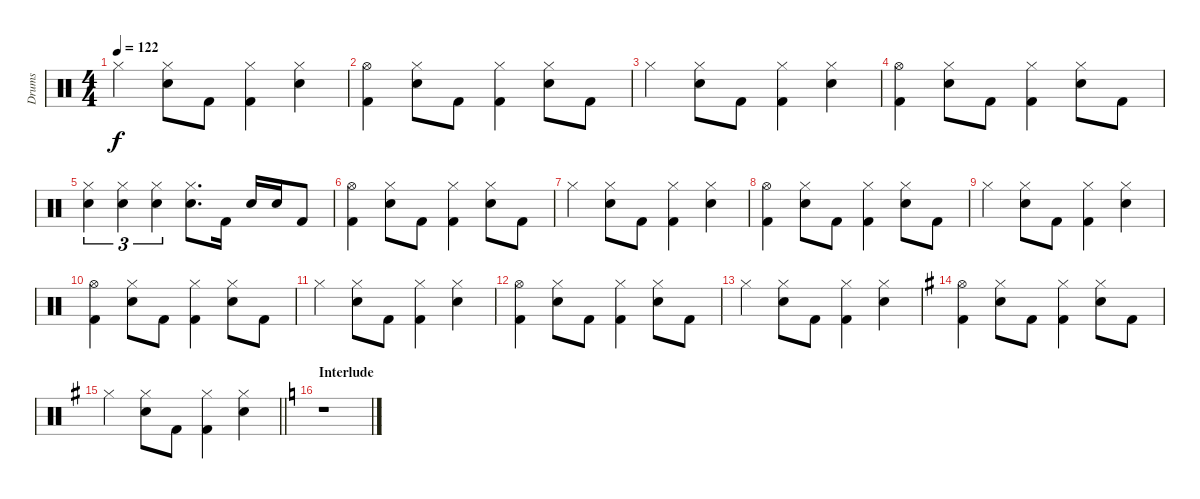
\track ("Drums" "Drums") {instrument percussion}
\staff {score}
\articulation defaults
\ts (4 4)
\tempo 122
\clef neutral
\ks c "Hi-Hat (closed)".4{dy f}
("Hi-Hat (closed)" "Snare (hit) 2").8 "Kick (hit) 2".8 ("Hi-Hat (closed)" "Kick (hit) 2").4 ("Hi-Hat (closed)" "Snare (hit) 2").4 |
("Hi-Hat (open)" "Kick (hit) 2").4 ("Hi-Hat (closed)" "Snare (hit) 2").8 "Kick (hit) 2".8 ("Hi-Hat (closed)" "Kick (hit) 2").4 ("Hi-Hat (closed)" "Snare (hit) 2").8 "Kick (hit) 2".8 |
"Hi-Hat (closed)".4 ("Hi-Hat (closed)" "Snare (hit) 2").8 "Kick (hit) 2".8 ("Hi-Hat (closed)" "Kick (hit) 2").4 ("Hi-Hat (closed)" "Snare (hit) 2").4 |
("Hi-Hat (open)" "Kick (hit) 2").4 ("Hi-Hat (closed)" "Snare (hit) 2").8 "Kick (hit) 2".8 ("Hi-Hat (closed)" "Kick (hit) 2").4 ("Hi-Hat (closed)" "Snare (hit) 2").8 "Kick (hit) 2".8 |
("Hi-Hat (closed)" "Snare (hit) 2").4{tu (3 2)} ("Hi-Hat (closed)" "Snare (hit) 2").4{tu (3 2)} ("Hi-Hat (closed)" "Snare (hit) 2").4{tu (3 2)} ("Hi-Hat (closed)" "Snare (hit) 2").8{d} "Kick (hit) 2".16 "Snare (hit) 2".16 "Snare (hit) 2".16 "Kick (hit) 2".8 |
("Hi-Hat (open)" "Kick (hit) 2").4 ("Hi-Hat (closed)" "Snare (hit) 2").8 "Kick (hit) 2".8 ("Hi-Hat (closed)" "Kick (hit) 2").4 ("Hi-Hat (closed)" "Snare (hit) 2").8 "Kick (hit) 2".8 |
"Hi-Hat (closed)".4 ("Hi-Hat (closed)" "Snare (hit) 2").8 "Kick (hit) 2".8 ("Hi-Hat (closed)" "Kick (hit) 2").4 ("Hi-Hat (closed)" "Snare (hit) 2").4 |
("Hi-Hat (open)" "Kick (hit) 2").4 ("Hi-Hat (closed)" "Snare (hit) 2").8 "Kick (hit) 2".8 ("Hi-Hat (closed)" "Kick (hit) 2").4 ("Hi-Hat (closed)" "Snare (hit) 2").8 "Kick (hit) 2".8 |
"Hi-Hat (closed)".4 ("Hi-Hat (closed)" "Snare (hit) 2").8 "Kick (hit) 2".8 ("Hi-Hat (closed)" "Kick (hit) 2").4 ("Hi-Hat (closed)" "Snare (hit) 2").4 |
("Hi-Hat (open)" "Kick (hit) 2").4 ("Hi-Hat (closed)" "Snare (hit) 2").8 "Kick (hit) 2".8 ("Hi-Hat (closed)" "Kick (hit) 2").4 ("Hi-Hat (closed)" "Snare (hit) 2").8 "Kick (hit) 2".8 |
"Hi-Hat (closed)".4 ("Hi-Hat (closed)" "Snare (hit) 2").8 "Kick (hit) 2".8 ("Hi-Hat (closed)" "Kick (hit) 2").4 ("Hi-Hat (closed)" "Snare (hit) 2").4 |
("Hi-Hat (open)" "Kick (hit) 2").4 ("Hi-Hat (closed)" "Snare (hit) 2").8 "Kick (hit) 2".8 ("Hi-Hat (closed)" "Kick (hit) 2").4 ("Hi-Hat (closed)" "Snare (hit) 2").8 "Kick (hit) 2".8 |
"Hi-Hat (closed)".4 ("Hi-Hat (closed)" "Snare (hit) 2").8 "Kick (hit) 2".8 ("Hi-Hat (closed)" "Kick (hit) 2").4 ("Hi-Hat (closed)" "Snare (hit) 2").4 |
\ks g
("Hi-Hat (open)" "Kick (hit) 2").4 ("Hi-Hat (closed)" "Snare (hit) 2").8 "Kick (hit) 2".8 ("Hi-Hat (closed)" "Kick (hit) 2").4 ("Hi-Hat (closed)" "Snare (hit) 2").8 "Kick (hit) 2".8 |
\barLineRight lightlight "Hi-Hat (closed)".4
("Hi-Hat (closed)" "Snare (hit) 2").8 "Kick (hit) 2".8 ("Hi-Hat (closed)" "Kick (hit) 2").4 ("Hi-Hat (closed)" "Snare (hit) 2").4 |
\section ("" "Interlude")
\ks c
r.1
